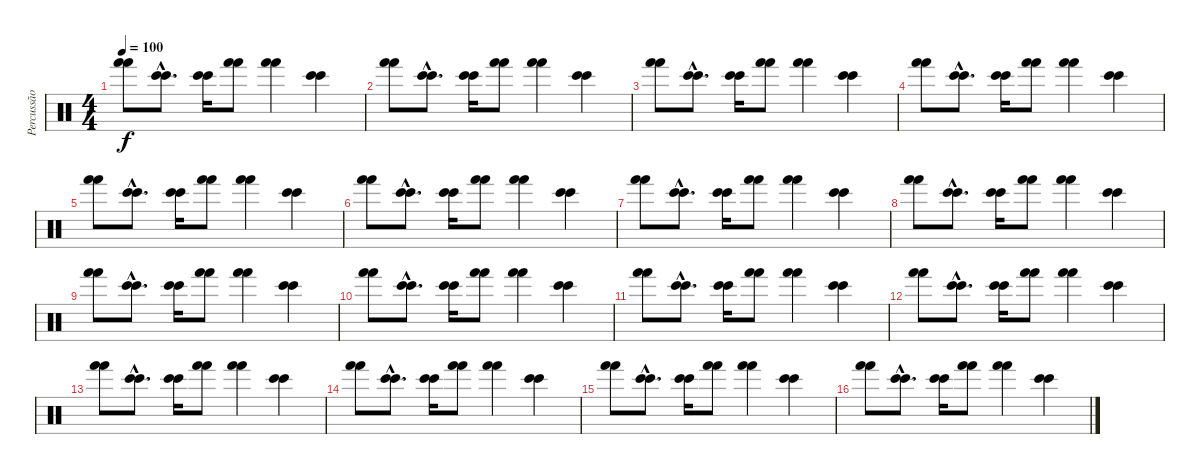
\track ("Percussão" "Percussão") {instrument percussion}
\staff {score}
\articulation defaults
\ts (4 4)
\tempo 100
\clef neutral
\ks c
("Hand (hit)" "Hand (hit)").8{dy f} ("Bongo High (hit)"{hac} "Bongo High (hit)"{hac}).8{d} ("Bongo High (hit)" "Bongo High (hit)").16 ("Hand (hit)" "Hand (hit)").8 ("Hand (hit)" "Hand (hit)").4 ("Bongo High (hit)" "Bongo High (hit)").4 |
("Hand (hit)" "Hand (hit)").8 ("Bongo High (hit)"{hac} "Bongo High (hit)"{hac}).8{d} ("Bongo High (hit)" "Bongo High (hit)").16 ("Hand (hit)" "Hand (hit)").8 ("Hand (hit)" "Hand (hit)").4 ("Bongo High (hit)" "Bongo High (hit)").4 |
("Hand (hit)" "Hand (hit)").8 ("Bongo High (hit)"{hac} "Bongo High (hit)"{hac}).8{d} ("Bongo High (hit)" "Bongo High (hit)").16 ("Hand (hit)" "Hand (hit)").8 ("Hand (hit)" "Hand (hit)").4 ("Bongo High (hit)" "Bongo High (hit)").4 |
("Hand (hit)" "Hand (hit)").8 ("Bongo High (hit)"{hac} "Bongo High (hit)"{hac}).8{d} ("Bongo High (hit)" "Bongo High (hit)").16 ("Hand (hit)" "Hand (hit)").8 ("Hand (hit)" "Hand (hit)").4 ("Bongo High (hit)" "Bongo High (hit)").4 |
("Hand (hit)" "Hand (hit)").8 ("Bongo High (hit)"{hac} "Bongo High (hit)"{hac}).8{d} ("Bongo High (hit)" "Bongo High (hit)").16 ("Hand (hit)" "Hand (hit)").8 ("Hand (hit)" "Hand (hit)").4 ("Bongo High (hit)" "Bongo High (hit)").4 |
("Hand (hit)" "Hand (hit)").8 ("Bongo High (hit)"{hac} "Bongo High (hit)"{hac}).8{d} ("Bongo High (hit)" "Bongo High (hit)").16 ("Hand (hit)" "Hand (hit)").8 ("Hand (hit)" "Hand (hit)").4 ("Bongo High (hit)" "Bongo High (hit)").4 |
("Hand (hit)" "Hand (hit)").8 ("Bongo High (hit)"{hac} "Bongo High (hit)"{hac}).8{d} ("Bongo High (hit)" "Bongo High (hit)").16 ("Hand (hit)" "Hand (hit)").8 ("Hand (hit)" "Hand (hit)").4 ("Bongo High (hit)" "Bongo High (hit)").4 |
("Hand (hit)" "Hand (hit)").8 ("Bongo High (hit)"{hac} "Bongo High (hit)"{hac}).8{d} ("Bongo High (hit)" "Bongo High (hit)").16 ("Hand (hit)" "Hand (hit)").8 ("Hand (hit)" "Hand (hit)").4 ("Bongo High (hit)" "Bongo High (hit)").4 |
("Hand (hit)" "Hand (hit)").8 ("Bongo High (hit)"{hac} "Bongo High (hit)"{hac}).8{d} ("Bongo High (hit)" "Bongo High (hit)").16 ("Hand (hit)" "Hand (hit)").8 ("Hand (hit)" "Hand (hit)").4 ("Bongo High (hit)" "Bongo High (hit)").4 |
("Hand (hit)" "Hand (hit)").8 ("Bongo High (hit)"{hac} "Bongo High (hit)"{hac}).8{d} ("Bongo High (hit)" "Bongo High (hit)").16 ("Hand (hit)" "Hand (hit)").8 ("Hand (hit)" "Hand (hit)").4 ("Bongo High (hit)" "Bongo High (hit)").4 |
("Hand (hit)" "Hand (hit)").8 ("Bongo High (hit)"{hac} "Bongo High (hit)"{hac}).8{d} ("Bongo High (hit)" "Bongo High (hit)").16 ("Hand (hit)" "Hand (hit)").8 ("Hand (hit)" "Hand (hit)").4 ("Bongo High (hit)" "Bongo High (hit)").4 |
("Hand (hit)" "Hand (hit)").8 ("Bongo High (hit)"{hac} "Bongo High (hit)"{hac}).8{d} ("Bongo High (hit)" "Bongo High (hit)").16 ("Hand (hit)" "Hand (hit)").8 ("Hand (hit)" "Hand (hit)").4 ("Bongo High (hit)" "Bongo High (hit)").4 |
("Hand (hit)" "Hand (hit)").8 ("Bongo High (hit)"{hac} "Bongo High (hit)"{hac}).8{d} ("Bongo High (hit)" "Bongo High (hit)").16 ("Hand (hit)" "Hand (hit)").8 ("Hand (hit)" "Hand (hit)").4 ("Bongo High (hit)" "Bongo High (hit)").4 |
("Hand (hit)" "Hand (hit)").8 ("Bongo High (hit)"{hac} "Bongo High (hit)"{hac}).8{d} ("Bongo High (hit)" "Bongo High (hit)").16 ("Hand (hit)" "Hand (hit)").8 ("Hand (hit)" "Hand (hit)").4 ("Bongo High (hit)" "Bongo High (hit)").4 |
("Hand (hit)" "Hand (hit)").8 ("Bongo High (hit)"{hac} "Bongo High (hit)"{hac}).8{d} ("Bongo High (hit)" "Bongo High (hit)").16 ("Hand (hit)" "Hand (hit)").8 ("Hand (hit)" "Hand (hit)").4 ("Bongo High (hit)" "Bongo High (hit)").4 |
("Hand (hit)" "Hand (hit)").8 ("Bongo High (hit)"{hac} "Bongo High (hit)"{hac}).8{d} ("Bongo High (hit)" "Bongo High (hit)").16 ("Hand (hit)" "Hand (hit)").8 ("Hand (hit)" "Hand (hit)").4 ("Bongo High (hit)" "Bongo High (hit)").4
